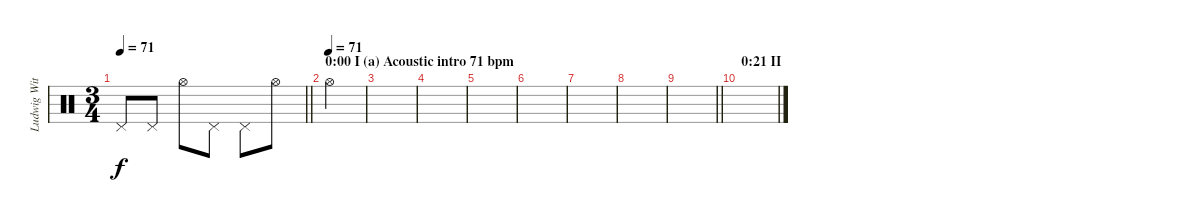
\track ("Ludwig Witt (Drums)" "Ludwig Wit") {instrument percussion}
\staff
\articulation defaults
\ts (3 4)
\tempo 71
\clef neutral
\barLineRight lightlight
\ks c "Pedal Hi-Hat (hit)".8{dy f} "Pedal Hi-Hat (hit)".8 "Hi-Hat (open)".8 "Pedal Hi-Hat (hit)".8 "Pedal Hi-Hat (hit)".8 "Hi-Hat (open)".8
|
\section ("" "0:00 I (a) Acoustic intro 71 bpm")
\tempo (71)
"Hi-Hat (open)".4 |
|
|
|
|
|
|
\barLineRight lightlight
|
\section ("" "0:21 II")
